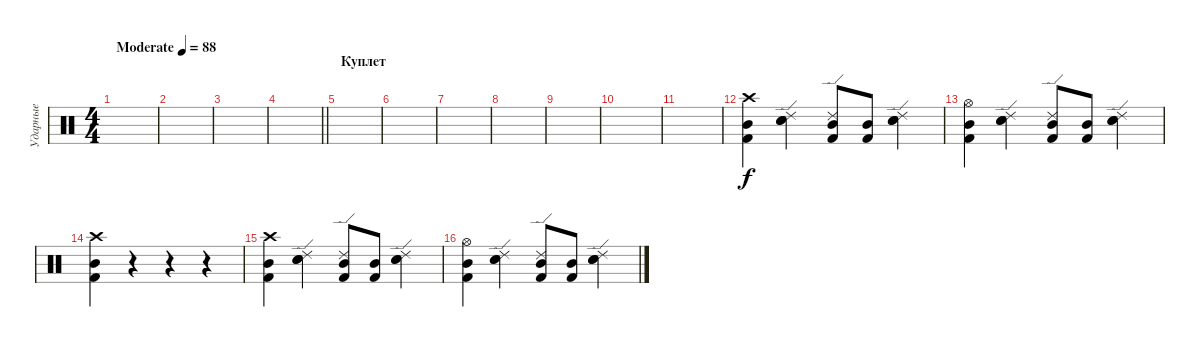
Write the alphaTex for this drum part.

\track ("Ударные" "Ударные") {instrument percussion}
\staff {score}
\articulation defaults
\ts (4 4)
\tempo (88 "Moderate")
\clef neutral
\ks c
|
|
|
\barLineRight lightlight
|
\section ("" "Куплет")
|
|
|
|
|
|
|
("Kick (hit) 2" "Mid Tom (hit)" "Crash high (hit)").4 ("Ride (edge) 2" "Electric Snare (hit)" "Electric Snare (hit)").4 ("Ride (edge) 2" "Mid Tom (hit)" "Kick (hit) 2").8 ("Mid Tom (hit)" "Kick (hit) 2").8 ("Ride (edge) 2" "Electric Snare (hit)" "Electric Snare (hit)").4 |
("Kick (hit) 2" "Mid Tom (hit)" "Hi-Hat (open)").4 ("Ride (edge) 2" "Electric Snare (hit)" "Electric Snare (hit)").4 ("Ride (edge) 2" "Mid Tom (hit)" "Kick (hit) 2").8 ("Mid Tom (hit)" "Kick (hit) 2").8 ("Ride (edge) 2" "Electric Snare (hit)" "Electric Snare (hit)").4 |
("Kick (hit) 2" "Mid Tom (hit)" "Crash high (hit)").4 r.4 r.4 r.4 |
("Kick (hit) 2" "Mid Tom (hit)" "Crash high (hit)").4 ("Ride (edge) 2" "Electric Snare (hit)" "Electric Snare (hit)").4 ("Ride (edge) 2" "Mid Tom (hit)" "Kick (hit) 2").8 ("Mid Tom (hit)" "Kick (hit) 2").8 ("Ride (edge) 2" "Electric Snare (hit)" "Electric Snare (hit)").4 |
("Kick (hit) 2" "Mid Tom (hit)" "Hi-Hat (open)").4 ("Ride (edge) 2" "Electric Snare (hit)" "Electric Snare (hit)").4 ("Ride (edge) 2" "Mid Tom (hit)" "Kick (hit) 2").8 ("Mid Tom (hit)" "Kick (hit) 2").8 ("Ride (edge) 2" "Electric Snare (hit)" "Electric Snare (hit)").4
